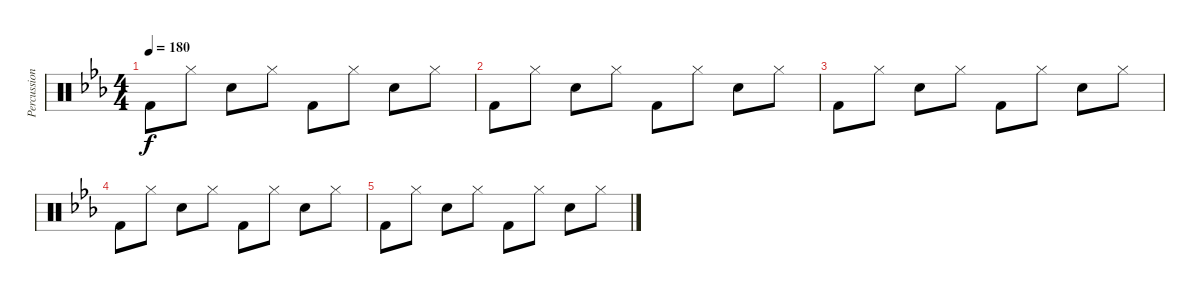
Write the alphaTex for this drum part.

\track ("Percussion" "Percussion") {instrument percussion}
\staff {score}
\articulation defaults
\ts (4 4)
\tempo 180
\clef neutral
\ks cminor "Kick (hit) 2".8{dy f} "Hi-Hat (closed)".8 "Snare (hit) 2".8 "Hi-Hat (closed)".8 "Kick (hit) 2".8 "Hi-Hat (closed)".8 "Snare (hit) 2".8 "Hi-Hat (closed)".8
|
"Kick (hit) 2".8 "Hi-Hat (closed)".8 "Snare (hit) 2".8 "Hi-Hat (closed)".8 "Kick (hit) 2".8 "Hi-Hat (closed)".8 "Snare (hit) 2".8 "Hi-Hat (closed)".8 |
"Kick (hit) 2".8 "Hi-Hat (closed)".8 "Snare (hit) 2".8 "Hi-Hat (closed)".8 "Kick (hit) 2".8 "Hi-Hat (closed)".8 "Snare (hit) 2".8 "Hi-Hat (closed)".8 |
"Kick (hit) 2".8 "Hi-Hat (closed)".8 "Snare (hit) 2".8 "Hi-Hat (closed)".8 "Kick (hit) 2".8 "Hi-Hat (closed)".8 "Snare (hit) 2".8 "Hi-Hat (closed)".8 |
"Kick (hit) 2".8 "Hi-Hat (closed)".8 "Snare (hit) 2".8 "Hi-Hat (closed)".8 "Kick (hit) 2".8 "Hi-Hat (closed)".8 "Snare (hit) 2".8 "Hi-Hat (closed)".8
